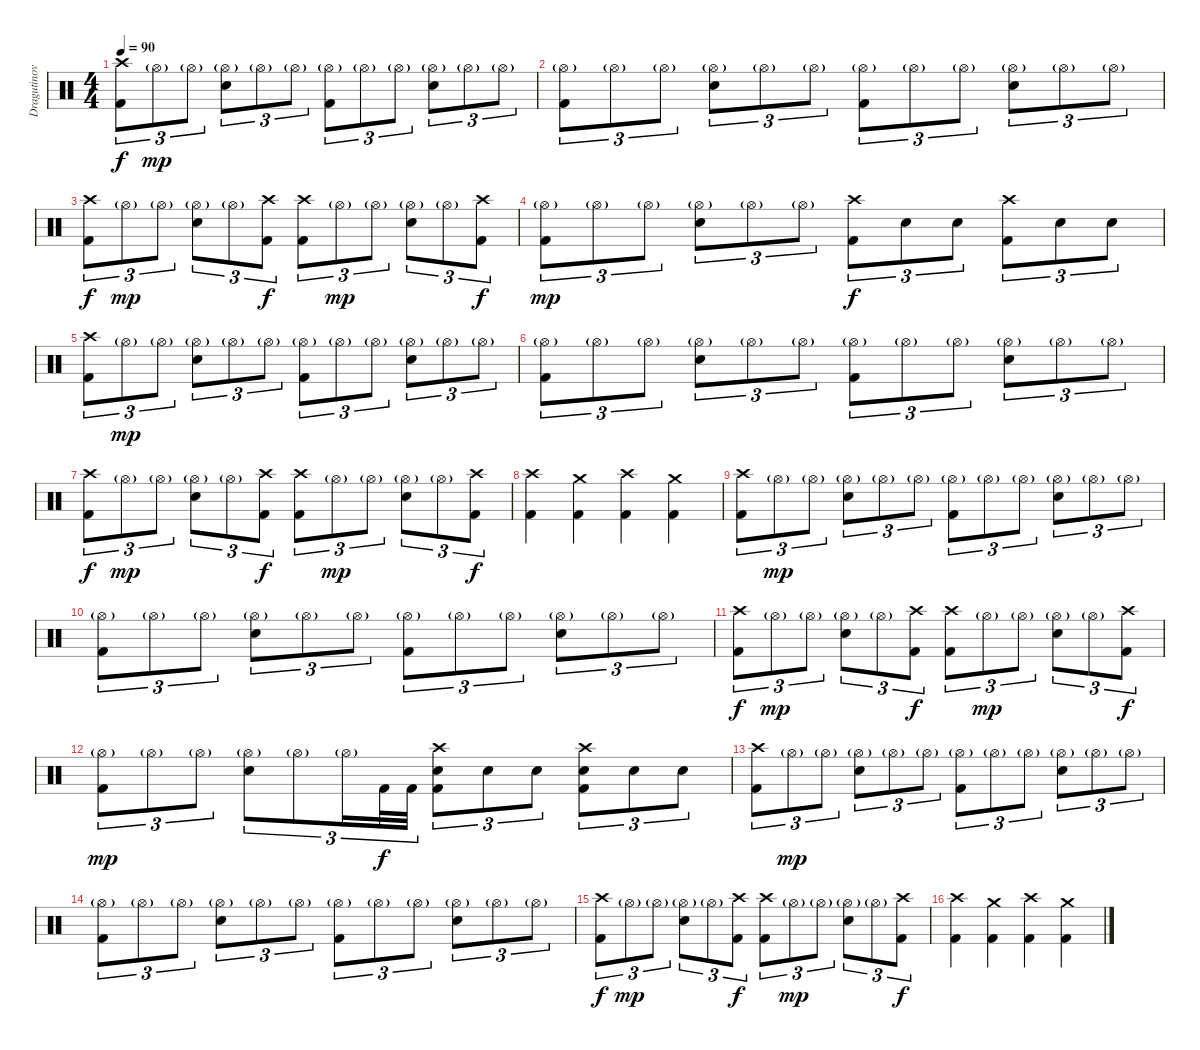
\track ("Dragutinovic" "Dragutinov") {instrument percussion}
\staff {score}
\articulation defaults
\ts (4 4)
\tempo 90
\clef neutral
\ks c
("Crash high (hit)" "Kick (hit) 2").8{tu (3 2) dy f} "Hi-Hat (open)"{g}.8{tu (3 2) dy mp} "Hi-Hat (open)"{g}.8{tu (3 2)} ("Hi-Hat (open)"{g} "Electric Snare (hit)").8{tu (3 2)} "Hi-Hat (open)"{g}.8{tu (3 2)} "Hi-Hat (open)"{g}.8{tu (3 2)} ("Hi-Hat (open)"{g} "Kick (hit) 2").8{tu (3 2)} "Hi-Hat (open)"{g}.8{tu (3 2)} "Hi-Hat (open)"{g}.8{tu (3 2)} ("Hi-Hat (open)"{g} "Electric Snare (hit)").8{tu (3 2)} "Hi-Hat (open)"{g}.8{tu (3 2)} "Hi-Hat (open)"{g}.8{tu (3 2)} |
("Hi-Hat (open)"{g} "Kick (hit) 2").8{tu (3 2)} "Hi-Hat (open)"{g}.8{tu (3 2)} "Hi-Hat (open)"{g}.8{tu (3 2)} ("Hi-Hat (open)"{g} "Electric Snare (hit)").8{tu (3 2)} "Hi-Hat (open)"{g}.8{tu (3 2)} "Hi-Hat (open)"{g}.8{tu (3 2)} ("Hi-Hat (open)"{g} "Kick (hit) 2").8{tu (3 2)} "Hi-Hat (open)"{g}.8{tu (3 2)} "Hi-Hat (open)"{g}.8{tu (3 2)} ("Hi-Hat (open)"{g} "Electric Snare (hit)").8{tu (3 2)} "Hi-Hat (open)"{g}.8{tu (3 2)} "Hi-Hat (open)"{g}.8{tu (3 2)} |
("Crash high (hit)" "Kick (hit) 2").8{tu (3 2) dy f} "Hi-Hat (open)"{g}.8{tu (3 2) dy mp} "Hi-Hat (open)"{g}.8{tu (3 2)} ("Hi-Hat (open)"{g} "Electric Snare (hit)").8{tu (3 2)} "Hi-Hat (open)"{g}.8{tu (3 2)} ("Crash high (hit)" "Kick (hit) 2").8{tu (3 2) dy f} ("Crash high (hit)" "Kick (hit) 2").8{tu (3 2)} "Hi-Hat (open)"{g}.8{tu (3 2) dy mp} "Hi-Hat (open)"{g}.8{tu (3 2)} ("Hi-Hat (open)"{g} "Electric Snare (hit)").8{tu (3 2)} "Hi-Hat (open)"{g}.8{tu (3 2)} ("Crash high (hit)" "Kick (hit) 2").8{tu (3 2) dy f} |
("Hi-Hat (open)"{g} "Kick (hit) 2").8{tu (3 2) dy mp} "Hi-Hat (open)"{g}.8{tu (3 2)} "Hi-Hat (open)"{g}.8{tu (3 2)} ("Hi-Hat (open)"{g} "Electric Snare (hit)").8{tu (3 2)} "Hi-Hat (open)"{g}.8{tu (3 2)} "Hi-Hat (open)"{g}.8{tu (3 2)} ("Crash high (hit)" "Kick (hit) 2").8{tu (3 2) dy f} "Electric Snare (hit)".8{tu (3 2)} "Electric Snare (hit)".8{tu (3 2)} ("Crash high (hit)" "Kick (hit) 2").8{tu (3 2)} "Electric Snare (hit)".8{tu (3 2)} "Electric Snare (hit)".8{tu (3 2)} |
("Crash high (hit)" "Kick (hit) 2").8{tu (3 2)} "Hi-Hat (open)"{g}.8{tu (3 2) dy mp} "Hi-Hat (open)"{g}.8{tu (3 2)} ("Hi-Hat (open)"{g} "Electric Snare (hit)").8{tu (3 2)} "Hi-Hat (open)"{g}.8{tu (3 2)} "Hi-Hat (open)"{g}.8{tu (3 2)} ("Hi-Hat (open)"{g} "Kick (hit) 2").8{tu (3 2)} "Hi-Hat (open)"{g}.8{tu (3 2)} "Hi-Hat (open)"{g}.8{tu (3 2)} ("Hi-Hat (open)"{g} "Electric Snare (hit)").8{tu (3 2)} "Hi-Hat (open)"{g}.8{tu (3 2)} "Hi-Hat (open)"{g}.8{tu (3 2)} |
("Hi-Hat (open)"{g} "Kick (hit) 2").8{tu (3 2)} "Hi-Hat (open)"{g}.8{tu (3 2)} "Hi-Hat (open)"{g}.8{tu (3 2)} ("Hi-Hat (open)"{g} "Electric Snare (hit)").8{tu (3 2)} "Hi-Hat (open)"{g}.8{tu (3 2)} "Hi-Hat (open)"{g}.8{tu (3 2)} ("Hi-Hat (open)"{g} "Kick (hit) 2").8{tu (3 2)} "Hi-Hat (open)"{g}.8{tu (3 2)} "Hi-Hat (open)"{g}.8{tu (3 2)} ("Hi-Hat (open)"{g} "Electric Snare (hit)").8{tu (3 2)} "Hi-Hat (open)"{g}.8{tu (3 2)} "Hi-Hat (open)"{g}.8{tu (3 2)} |
("Crash high (hit)" "Kick (hit) 2").8{tu (3 2) dy f} "Hi-Hat (open)"{g}.8{tu (3 2) dy mp} "Hi-Hat (open)"{g}.8{tu (3 2)} ("Hi-Hat (open)"{g} "Electric Snare (hit)").8{tu (3 2)} "Hi-Hat (open)"{g}.8{tu (3 2)} ("Crash high (hit)" "Kick (hit) 2").8{tu (3 2) dy f} ("Crash high (hit)" "Kick (hit) 2").8{tu (3 2)} "Hi-Hat (open)"{g}.8{tu (3 2) dy mp} "Hi-Hat (open)"{g}.8{tu (3 2)} ("Hi-Hat (open)"{g} "Electric Snare (hit)").8{tu (3 2)} "Hi-Hat (open)"{g}.8{tu (3 2)} ("Crash high (hit)" "Kick (hit) 2").8{tu (3 2) dy f} |
("Crash high (hit)" "Kick (hit) 2").4 ("Crash medium (hit)" "Kick (hit) 2").4 ("Crash high (hit)" "Kick (hit) 2").4 ("Crash medium (hit)" "Kick (hit) 2").4 |
("Crash high (hit)" "Kick (hit) 2").8{tu (3 2)} "Hi-Hat (open)"{g}.8{tu (3 2) dy mp} "Hi-Hat (open)"{g}.8{tu (3 2)} ("Hi-Hat (open)"{g} "Electric Snare (hit)").8{tu (3 2)} "Hi-Hat (open)"{g}.8{tu (3 2)} "Hi-Hat (open)"{g}.8{tu (3 2)} ("Hi-Hat (open)"{g} "Kick (hit) 2").8{tu (3 2)} "Hi-Hat (open)"{g}.8{tu (3 2)} "Hi-Hat (open)"{g}.8{tu (3 2)} ("Hi-Hat (open)"{g} "Electric Snare (hit)").8{tu (3 2)} "Hi-Hat (open)"{g}.8{tu (3 2)} "Hi-Hat (open)"{g}.8{tu (3 2)} |
("Hi-Hat (open)"{g} "Kick (hit) 2").8{tu (3 2)} "Hi-Hat (open)"{g}.8{tu (3 2)} "Hi-Hat (open)"{g}.8{tu (3 2)} ("Hi-Hat (open)"{g} "Electric Snare (hit)").8{tu (3 2)} "Hi-Hat (open)"{g}.8{tu (3 2)} "Hi-Hat (open)"{g}.8{tu (3 2)} ("Hi-Hat (open)"{g} "Kick (hit) 2").8{tu (3 2)} "Hi-Hat (open)"{g}.8{tu (3 2)} "Hi-Hat (open)"{g}.8{tu (3 2)} ("Hi-Hat (open)"{g} "Electric Snare (hit)").8{tu (3 2)} "Hi-Hat (open)"{g}.8{tu (3 2)} "Hi-Hat (open)"{g}.8{tu (3 2)} |
("Crash high (hit)" "Kick (hit) 2").8{tu (3 2) dy f} "Hi-Hat (open)"{g}.8{tu (3 2) dy mp} "Hi-Hat (open)"{g}.8{tu (3 2)} ("Hi-Hat (open)"{g} "Electric Snare (hit)").8{tu (3 2)} "Hi-Hat (open)"{g}.8{tu (3 2)} ("Crash high (hit)" "Kick (hit) 2").8{tu (3 2) dy f} ("Crash high (hit)" "Kick (hit) 2").8{tu (3 2)} "Hi-Hat (open)"{g}.8{tu (3 2) dy mp} "Hi-Hat (open)"{g}.8{tu (3 2)} ("Hi-Hat (open)"{g} "Electric Snare (hit)").8{tu (3 2)} "Hi-Hat (open)"{g}.8{tu (3 2)} ("Crash high (hit)" "Kick (hit) 2").8{tu (3 2) dy f} |
("Hi-Hat (open)"{g} "Kick (hit) 2").8{tu (3 2) dy mp} "Hi-Hat (open)"{g}.8{tu (3 2)} "Hi-Hat (open)"{g}.8{tu (3 2)} ("Hi-Hat (open)"{g} "Electric Snare (hit)").8{tu (3 2)} "Hi-Hat (open)"{g}.8{tu (3 2)} "Hi-Hat (open)"{g}.16{tu (3 2)} "Kick (hit) 2".32{tu (3 2) dy f} "Kick (hit) 2".32{tu (3 2)} ("Crash high (hit)" "Electric Snare (hit)" "Kick (hit) 2").8{tu (3 2)} "Electric Snare (hit)".8{tu (3 2)} "Electric Snare (hit)".8{tu (3 2)} ("Crash high (hit)" "Electric Snare (hit)" "Kick (hit) 2").8{tu (3 2)} "Electric Snare (hit)".8{tu (3 2)} "Electric Snare (hit)".8{tu (3 2)} |
("Crash high (hit)" "Kick (hit) 2").8{tu (3 2)} "Hi-Hat (open)"{g}.8{tu (3 2) dy mp} "Hi-Hat (open)"{g}.8{tu (3 2)} ("Hi-Hat (open)"{g} "Electric Snare (hit)").8{tu (3 2)} "Hi-Hat (open)"{g}.8{tu (3 2)} "Hi-Hat (open)"{g}.8{tu (3 2)} ("Hi-Hat (open)"{g} "Kick (hit) 2").8{tu (3 2)} "Hi-Hat (open)"{g}.8{tu (3 2)} "Hi-Hat (open)"{g}.8{tu (3 2)} ("Hi-Hat (open)"{g} "Electric Snare (hit)").8{tu (3 2)} "Hi-Hat (open)"{g}.8{tu (3 2)} "Hi-Hat (open)"{g}.8{tu (3 2)} |
("Hi-Hat (open)"{g} "Kick (hit) 2").8{tu (3 2)} "Hi-Hat (open)"{g}.8{tu (3 2)} "Hi-Hat (open)"{g}.8{tu (3 2)} ("Hi-Hat (open)"{g} "Electric Snare (hit)").8{tu (3 2)} "Hi-Hat (open)"{g}.8{tu (3 2)} "Hi-Hat (open)"{g}.8{tu (3 2)} ("Hi-Hat (open)"{g} "Kick (hit) 2").8{tu (3 2)} "Hi-Hat (open)"{g}.8{tu (3 2)} "Hi-Hat (open)"{g}.8{tu (3 2)} ("Hi-Hat (open)"{g} "Electric Snare (hit)").8{tu (3 2)} "Hi-Hat (open)"{g}.8{tu (3 2)} "Hi-Hat (open)"{g}.8{tu (3 2)} |
("Crash high (hit)" "Kick (hit) 2").8{tu (3 2) dy f} "Hi-Hat (open)"{g}.8{tu (3 2) dy mp} "Hi-Hat (open)"{g}.8{tu (3 2)} ("Hi-Hat (open)"{g} "Electric Snare (hit)").8{tu (3 2)} "Hi-Hat (open)"{g}.8{tu (3 2)} ("Crash high (hit)" "Kick (hit) 2").8{tu (3 2) dy f} ("Crash high (hit)" "Kick (hit) 2").8{tu (3 2)} "Hi-Hat (open)"{g}.8{tu (3 2) dy mp} "Hi-Hat (open)"{g}.8{tu (3 2)} ("Hi-Hat (open)"{g} "Electric Snare (hit)").8{tu (3 2)} "Hi-Hat (open)"{g}.8{tu (3 2)} ("Crash high (hit)" "Kick (hit) 2").8{tu (3 2) dy f} |
("Crash high (hit)" "Kick (hit) 2").4 ("Crash medium (hit)" "Kick (hit) 2").4 ("Crash high (hit)" "Kick (hit) 2").4 ("Crash medium (hit)" "Kick (hit) 2").4
